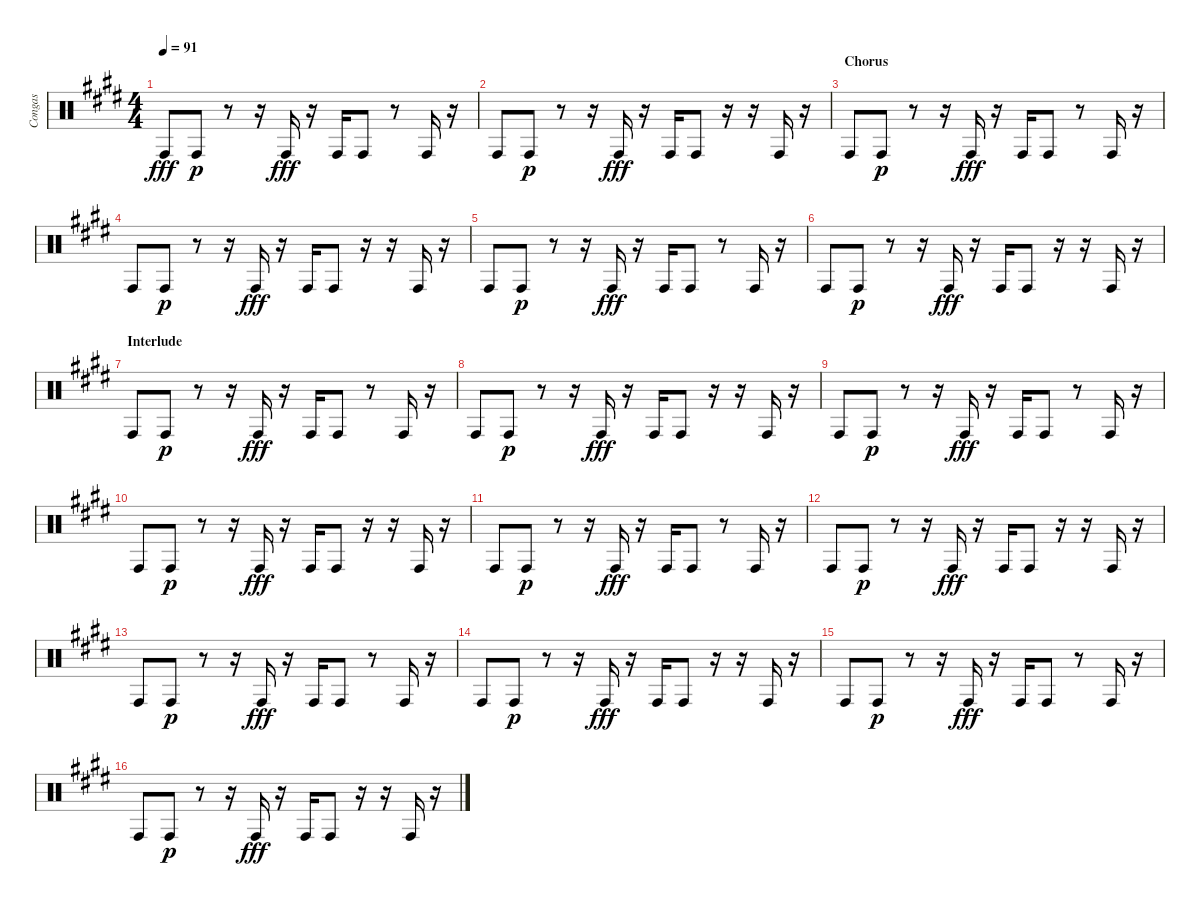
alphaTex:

\track ("Congas" "Congas") {instrument percussion}
\staff {score}
\articulation defaults
\ts (4 4)
\tempo 91
\clef neutral
\ks e "Conga high (hit)".8{dy fff} "Conga high (hit)".8{dy p}
r.8 r.16 "Conga high (hit)".16{dy fff} r.16 "Conga high (hit)".16 "Conga high (hit)".8 r.8 "Conga high (hit)".16 r.16 |
"Conga high (hit)".8 "Conga high (hit)".8{dy p} r.8 r.16 "Conga high (hit)".16{dy fff} r.16 "Conga high (hit)".16 "Conga high (hit)".8 r.16 r.16 "Conga high (hit)".16 r.16 |
\section ("" "Chorus")
"Conga high (hit)".8 "Conga high (hit)".8{dy p} r.8 r.16 "Conga high (hit)".16{dy fff} r.16 "Conga high (hit)".16 "Conga high (hit)".8 r.8 "Conga high (hit)".16 r.16 |
"Conga high (hit)".8 "Conga high (hit)".8{dy p} r.8 r.16 "Conga high (hit)".16{dy fff} r.16 "Conga high (hit)".16 "Conga high (hit)".8 r.16 r.16 "Conga high (hit)".16 r.16 |
"Conga high (hit)".8 "Conga high (hit)".8{dy p} r.8 r.16 "Conga high (hit)".16{dy fff} r.16 "Conga high (hit)".16 "Conga high (hit)".8 r.8 "Conga high (hit)".16 r.16 |
"Conga high (hit)".8 "Conga high (hit)".8{dy p} r.8 r.16 "Conga high (hit)".16{dy fff} r.16 "Conga high (hit)".16 "Conga high (hit)".8 r.16 r.16 "Conga high (hit)".16 r.16 |
\section ("" "Interlude")
"Conga high (hit)".8 "Conga high (hit)".8{dy p} r.8 r.16 "Conga high (hit)".16{dy fff} r.16 "Conga high (hit)".16 "Conga high (hit)".8 r.8 "Conga high (hit)".16 r.16 |
"Conga high (hit)".8 "Conga high (hit)".8{dy p} r.8 r.16 "Conga high (hit)".16{dy fff} r.16 "Conga high (hit)".16 "Conga high (hit)".8 r.16 r.16 "Conga high (hit)".16 r.16 |
"Conga high (hit)".8 "Conga high (hit)".8{dy p} r.8 r.16 "Conga high (hit)".16{dy fff} r.16 "Conga high (hit)".16 "Conga high (hit)".8 r.8 "Conga high (hit)".16 r.16 |
"Conga high (hit)".8 "Conga high (hit)".8{dy p} r.8 r.16 "Conga high (hit)".16{dy fff} r.16 "Conga high (hit)".16 "Conga high (hit)".8 r.16 r.16 "Conga high (hit)".16 r.16 |
"Conga high (hit)".8 "Conga high (hit)".8{dy p} r.8 r.16 "Conga high (hit)".16{dy fff} r.16 "Conga high (hit)".16 "Conga high (hit)".8 r.8 "Conga high (hit)".16 r.16 |
"Conga high (hit)".8 "Conga high (hit)".8{dy p} r.8 r.16 "Conga high (hit)".16{dy fff} r.16 "Conga high (hit)".16 "Conga high (hit)".8 r.16 r.16 "Conga high (hit)".16 r.16 |
"Conga high (hit)".8 "Conga high (hit)".8{dy p} r.8 r.16 "Conga high (hit)".16{dy fff} r.16 "Conga high (hit)".16 "Conga high (hit)".8 r.8 "Conga high (hit)".16 r.16 |
"Conga high (hit)".8 "Conga high (hit)".8{dy p} r.8 r.16 "Conga high (hit)".16{dy fff} r.16 "Conga high (hit)".16 "Conga high (hit)".8 r.16 r.16 "Conga high (hit)".16 r.16 |
"Conga high (hit)".8 "Conga high (hit)".8{dy p} r.8 r.16 "Conga high (hit)".16{dy fff} r.16 "Conga high (hit)".16 "Conga high (hit)".8 r.8 "Conga high (hit)".16 r.16 |
"Conga high (hit)".8 "Conga high (hit)".8{dy p} r.8 r.16 "Conga high (hit)".16{dy fff} r.16 "Conga high (hit)".16 "Conga high (hit)".8 r.16 r.16 "Conga high (hit)".16 r.16
